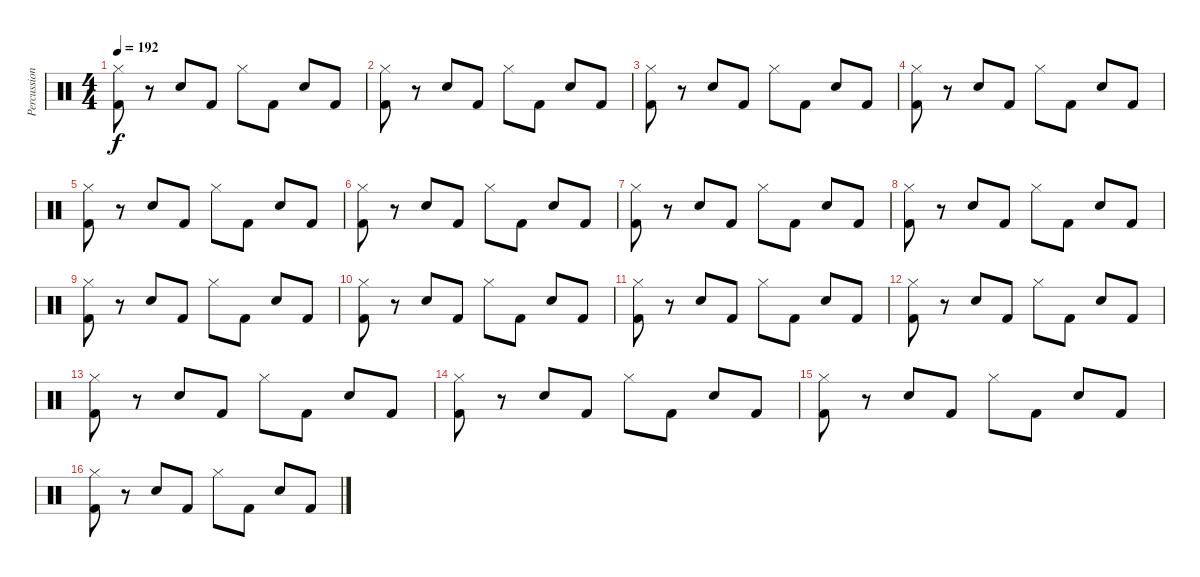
\track ("Percussions" "Percussion") {instrument percussion}
\staff {score}
\articulation defaults
\ts (4 4)
\tempo 192
\clef neutral
\ks c
("Kick (hit) 2" "Hi-Hat (closed)").8{dy f} r.8 "Snare (hit) 2".8 "Kick (hit) 2".8 "Hi-Hat (closed)".8 "Kick (hit) 2".8 "Snare (hit) 2".8 "Kick (hit) 2".8 |
("Kick (hit) 2" "Hi-Hat (closed)").8 r.8 "Snare (hit) 2".8 "Kick (hit) 2".8 "Hi-Hat (closed)".8 "Kick (hit) 2".8 "Snare (hit) 2".8 "Kick (hit) 2".8 |
("Kick (hit) 2" "Hi-Hat (closed)").8 r.8 "Snare (hit) 2".8 "Kick (hit) 2".8 "Hi-Hat (closed)".8 "Kick (hit) 2".8 "Snare (hit) 2".8 "Kick (hit) 2".8 |
("Kick (hit) 2" "Hi-Hat (closed)").8 r.8 "Snare (hit) 2".8 "Kick (hit) 2".8 "Hi-Hat (closed)".8 "Kick (hit) 2".8 "Snare (hit) 2".8 "Kick (hit) 2".8 |
("Kick (hit) 2" "Hi-Hat (closed)").8 r.8 "Snare (hit) 2".8 "Kick (hit) 2".8 "Hi-Hat (closed)".8 "Kick (hit) 2".8 "Snare (hit) 2".8 "Kick (hit) 2".8 |
("Kick (hit) 2" "Hi-Hat (closed)").8 r.8 "Snare (hit) 2".8 "Kick (hit) 2".8 "Hi-Hat (closed)".8 "Kick (hit) 2".8 "Snare (hit) 2".8 "Kick (hit) 2".8 |
("Kick (hit) 2" "Hi-Hat (closed)").8 r.8 "Snare (hit) 2".8 "Kick (hit) 2".8 "Hi-Hat (closed)".8 "Kick (hit) 2".8 "Snare (hit) 2".8 "Kick (hit) 2".8 |
("Kick (hit) 2" "Hi-Hat (closed)").8 r.8 "Snare (hit) 2".8 "Kick (hit) 2".8 "Hi-Hat (closed)".8 "Kick (hit) 2".8 "Snare (hit) 2".8 "Kick (hit) 2".8 |
("Kick (hit) 2" "Hi-Hat (closed)").8 r.8 "Snare (hit) 2".8 "Kick (hit) 2".8 "Hi-Hat (closed)".8 "Kick (hit) 2".8 "Snare (hit) 2".8 "Kick (hit) 2".8 |
("Kick (hit) 2" "Hi-Hat (closed)").8 r.8 "Snare (hit) 2".8 "Kick (hit) 2".8 "Hi-Hat (closed)".8 "Kick (hit) 2".8 "Snare (hit) 2".8 "Kick (hit) 2".8 |
("Kick (hit) 2" "Hi-Hat (closed)").8 r.8 "Snare (hit) 2".8 "Kick (hit) 2".8 "Hi-Hat (closed)".8 "Kick (hit) 2".8 "Snare (hit) 2".8 "Kick (hit) 2".8 |
("Kick (hit) 2" "Hi-Hat (closed)").8 r.8 "Snare (hit) 2".8 "Kick (hit) 2".8 "Hi-Hat (closed)".8 "Kick (hit) 2".8 "Snare (hit) 2".8 "Kick (hit) 2".8 |
("Kick (hit) 2" "Hi-Hat (closed)").8 r.8 "Snare (hit) 2".8 "Kick (hit) 2".8 "Hi-Hat (closed)".8 "Kick (hit) 2".8 "Snare (hit) 2".8 "Kick (hit) 2".8 |
("Kick (hit) 2" "Hi-Hat (closed)").8 r.8 "Snare (hit) 2".8 "Kick (hit) 2".8 "Hi-Hat (closed)".8 "Kick (hit) 2".8 "Snare (hit) 2".8 "Kick (hit) 2".8 |
("Kick (hit) 2" "Hi-Hat (closed)").8 r.8 "Snare (hit) 2".8 "Kick (hit) 2".8 "Hi-Hat (closed)".8 "Kick (hit) 2".8 "Snare (hit) 2".8 "Kick (hit) 2".8 |
("Kick (hit) 2" "Hi-Hat (closed)").8 r.8 "Snare (hit) 2".8 "Kick (hit) 2".8 "Hi-Hat (closed)".8 "Kick (hit) 2".8 "Snare (hit) 2".8 "Kick (hit) 2".8
